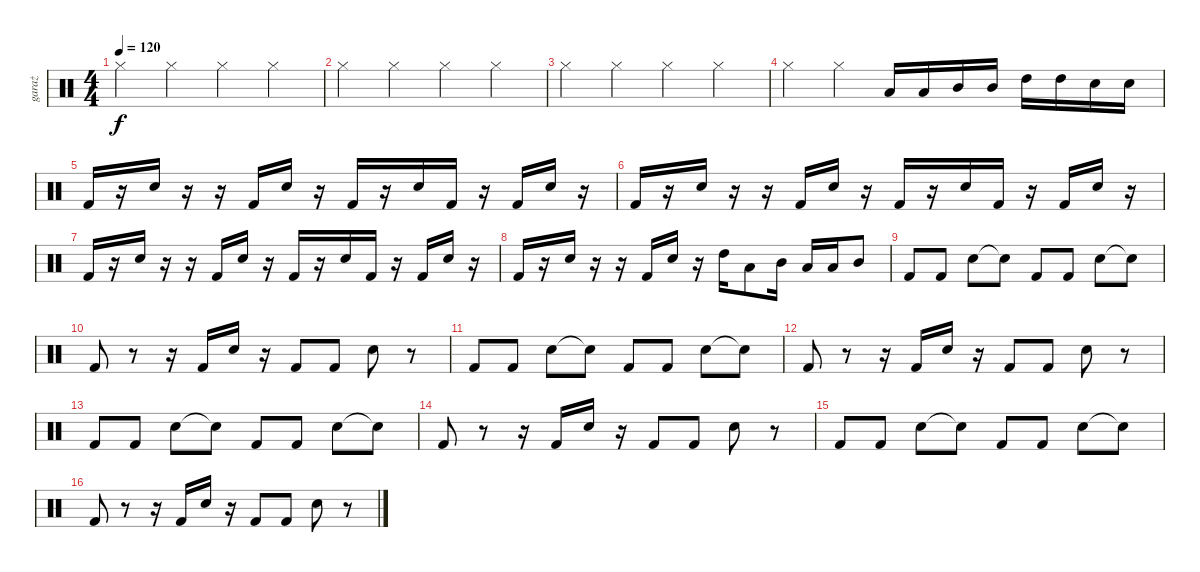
\track ("garaż" "garaż") {instrument percussion}
\staff {score}
\articulation defaults
\ts (4 4)
\tempo 120
\clef neutral
\ks c "Hi-Hat (closed)".4{dy f} "Hi-Hat (closed)".4 "Hi-Hat (closed)".4 "Hi-Hat (closed)".4
|
"Hi-Hat (closed)".4 "Hi-Hat (closed)".4 "Hi-Hat (closed)".4 "Hi-Hat (closed)".4 |
"Hi-Hat (closed)".4 "Hi-Hat (closed)".4 "Hi-Hat (closed)".4 "Hi-Hat (closed)".4 |
"Hi-Hat (closed)".4 "Hi-Hat (closed)".4 "Low Tom (hit)".16 "Low Tom (hit)".16 "Mid Tom (hit)".16 "Mid Tom (hit)".16 "High Tom (hit)".16 "High Tom (hit)".16 "Snare (hit) 2".16 "Snare (hit) 2".16 |
"Kick (hit) 2".16 r.16 "Snare (hit) 2".16 r.16 r.16 "Kick (hit) 2".16 "Snare (hit) 2".16 r.16 "Kick (hit) 2".16 r.16 "Snare (hit) 2".16 "Kick (hit) 2".16 r.16 "Kick (hit) 2".16 "Snare (hit) 2".16 r.16 |
"Kick (hit) 2".16 r.16 "Snare (hit) 2".16 r.16 r.16 "Kick (hit) 2".16 "Snare (hit) 2".16 r.16 "Kick (hit) 2".16 r.16 "Snare (hit) 2".16 "Kick (hit) 2".16 r.16 "Kick (hit) 2".16 "Snare (hit) 2".16 r.16 |
"Kick (hit) 2".16 r.16 "Snare (hit) 2".16 r.16 r.16 "Kick (hit) 2".16 "Snare (hit) 2".16 r.16 "Kick (hit) 2".16 r.16 "Snare (hit) 2".16 "Kick (hit) 2".16 r.16 "Kick (hit) 2".16 "Snare (hit) 2".16 r.16 |
"Kick (hit) 2".16 r.16 "Snare (hit) 2".16 r.16 r.16 "Kick (hit) 2".16 "Snare (hit) 2".16 r.16 "High Tom (hit)".16 "Low Tom (hit)".8 "Mid Tom (hit)".16 "Low Tom (hit)".16 "Low Tom (hit)".16 "Mid Tom (hit)".8 |
"Kick (hit) 2".8 "Kick (hit) 2".8 "Snare (hit) 2".8 "Snare (hit)"{t}.8 "Kick (hit) 2".8 "Kick (hit) 2".8 "Snare (hit) 2".8 "Snare (hit)"{t}.8 |
"Kick (hit) 2".8 r.8 r.16 "Kick (hit) 2".16 "Snare (hit) 2".16 r.16 "Kick (hit) 2".8 "Kick (hit) 2".8 "Snare (hit) 2".8 r.8 |
"Kick (hit) 2".8 "Kick (hit) 2".8 "Snare (hit) 2".8 "Snare (hit)"{t}.8 "Kick (hit) 2".8 "Kick (hit) 2".8 "Snare (hit) 2".8 "Snare (hit)"{t}.8 |
"Kick (hit) 2".8 r.8 r.16 "Kick (hit) 2".16 "Snare (hit) 2".16 r.16 "Kick (hit) 2".8 "Kick (hit) 2".8 "Snare (hit) 2".8 r.8 |
"Kick (hit) 2".8 "Kick (hit) 2".8 "Snare (hit) 2".8 "Snare (hit)"{t}.8 "Kick (hit) 2".8 "Kick (hit) 2".8 "Snare (hit) 2".8 "Snare (hit)"{t}.8 |
"Kick (hit) 2".8 r.8 r.16 "Kick (hit) 2".16 "Snare (hit) 2".16 r.16 "Kick (hit) 2".8 "Kick (hit) 2".8 "Snare (hit) 2".8 r.8 |
"Kick (hit) 2".8 "Kick (hit) 2".8 "Snare (hit) 2".8 "Snare (hit)"{t}.8 "Kick (hit) 2".8 "Kick (hit) 2".8 "Snare (hit) 2".8 "Snare (hit)"{t}.8 |
"Kick (hit) 2".8 r.8 r.16 "Kick (hit) 2".16 "Snare (hit) 2".16 r.16 "Kick (hit) 2".8 "Kick (hit) 2".8 "Snare (hit) 2".8 r.8
